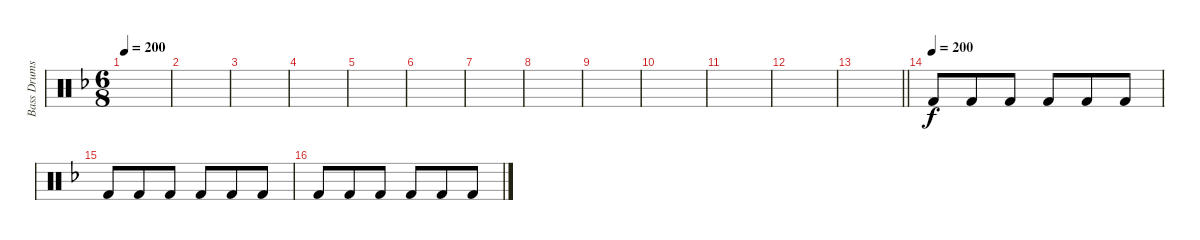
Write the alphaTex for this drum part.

\track ("Bass Drums" "Bass Drums") {instrument percussion}
\staff {score}
\articulation defaults
\ts (6 8)
\tempo 200
\clef neutral
\ks dminor
|
|
|
|
|
|
|
|
|
|
|
|
\barLineRight lightlight
|
\tempo (200)
"Kick (hit) 2".8 "Kick (hit) 2".8 "Kick (hit) 2".8 "Kick (hit) 2".8 "Kick (hit) 2".8 "Kick (hit) 2".8 |
"Kick (hit) 2".8 "Kick (hit) 2".8 "Kick (hit) 2".8 "Kick (hit) 2".8 "Kick (hit) 2".8 "Kick (hit) 2".8 |
"Kick (hit) 2".8 "Kick (hit) 2".8 "Kick (hit) 2".8 "Kick (hit) 2".8 "Kick (hit) 2".8 "Kick (hit) 2".8
